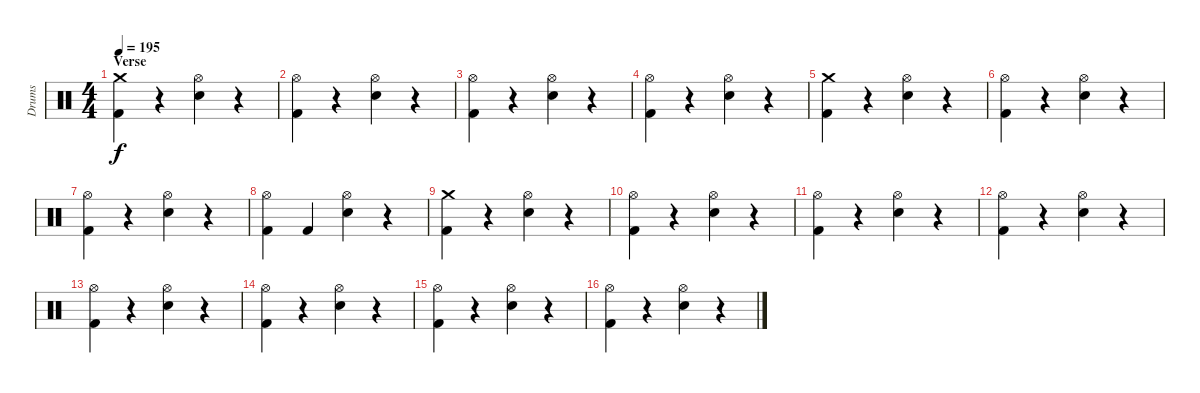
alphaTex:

\track ("Drums" "Drums") {instrument percussion}
\staff {score}
\articulation defaults
\ts (4 4)
\section ("" "Verse")
\tempo 195
\clef neutral
\ks c
("Crash medium (hit)" "Kick (hit) 2").4{dy f} r.4 ("Hi-Hat (open)" "Electric Snare (hit)").4 r.4 |
("Hi-Hat (open)" "Kick (hit) 2").4 r.4 ("Hi-Hat (open)" "Electric Snare (hit)").4 r.4 |
("Hi-Hat (open)" "Kick (hit) 2").4 r.4 ("Hi-Hat (open)" "Electric Snare (hit)").4 r.4 |
("Hi-Hat (open)" "Kick (hit) 2").4 r.4 ("Hi-Hat (open)" "Electric Snare (hit)").4 r.4 |
("Crash medium (hit)" "Kick (hit) 2").4 r.4 ("Hi-Hat (open)" "Electric Snare (hit)").4 r.4 |
("Hi-Hat (open)" "Kick (hit) 2").4 r.4 ("Hi-Hat (open)" "Electric Snare (hit)").4 r.4 |
("Hi-Hat (open)" "Kick (hit) 2").4 r.4 ("Hi-Hat (open)" "Electric Snare (hit)").4 r.4 |
("Hi-Hat (open)" "Kick (hit) 2").4 "Kick (hit) 2".4 ("Hi-Hat (open)" "Electric Snare (hit)").4 r.4 |
("Crash medium (hit)" "Kick (hit) 2").4 r.4 ("Hi-Hat (open)" "Electric Snare (hit)").4 r.4 |
("Hi-Hat (open)" "Kick (hit) 2").4 r.4 ("Hi-Hat (open)" "Electric Snare (hit)").4 r.4 |
("Hi-Hat (open)" "Kick (hit) 2").4 r.4 ("Hi-Hat (open)" "Electric Snare (hit)").4 r.4 |
("Hi-Hat (open)" "Kick (hit) 2").4 r.4 ("Hi-Hat (open)" "Electric Snare (hit)").4 r.4 |
("Hi-Hat (open)" "Kick (hit) 2").4 r.4 ("Hi-Hat (open)" "Electric Snare (hit)").4 r.4 |
("Hi-Hat (open)" "Kick (hit) 2").4 r.4 ("Hi-Hat (open)" "Electric Snare (hit)").4 r.4 |
("Hi-Hat (open)" "Kick (hit) 2").4 r.4 ("Hi-Hat (open)" "Electric Snare (hit)").4 r.4 |
("Hi-Hat (open)" "Kick (hit) 2").4 r.4 ("Hi-Hat (open)" "Electric Snare (hit)").4 r.4
